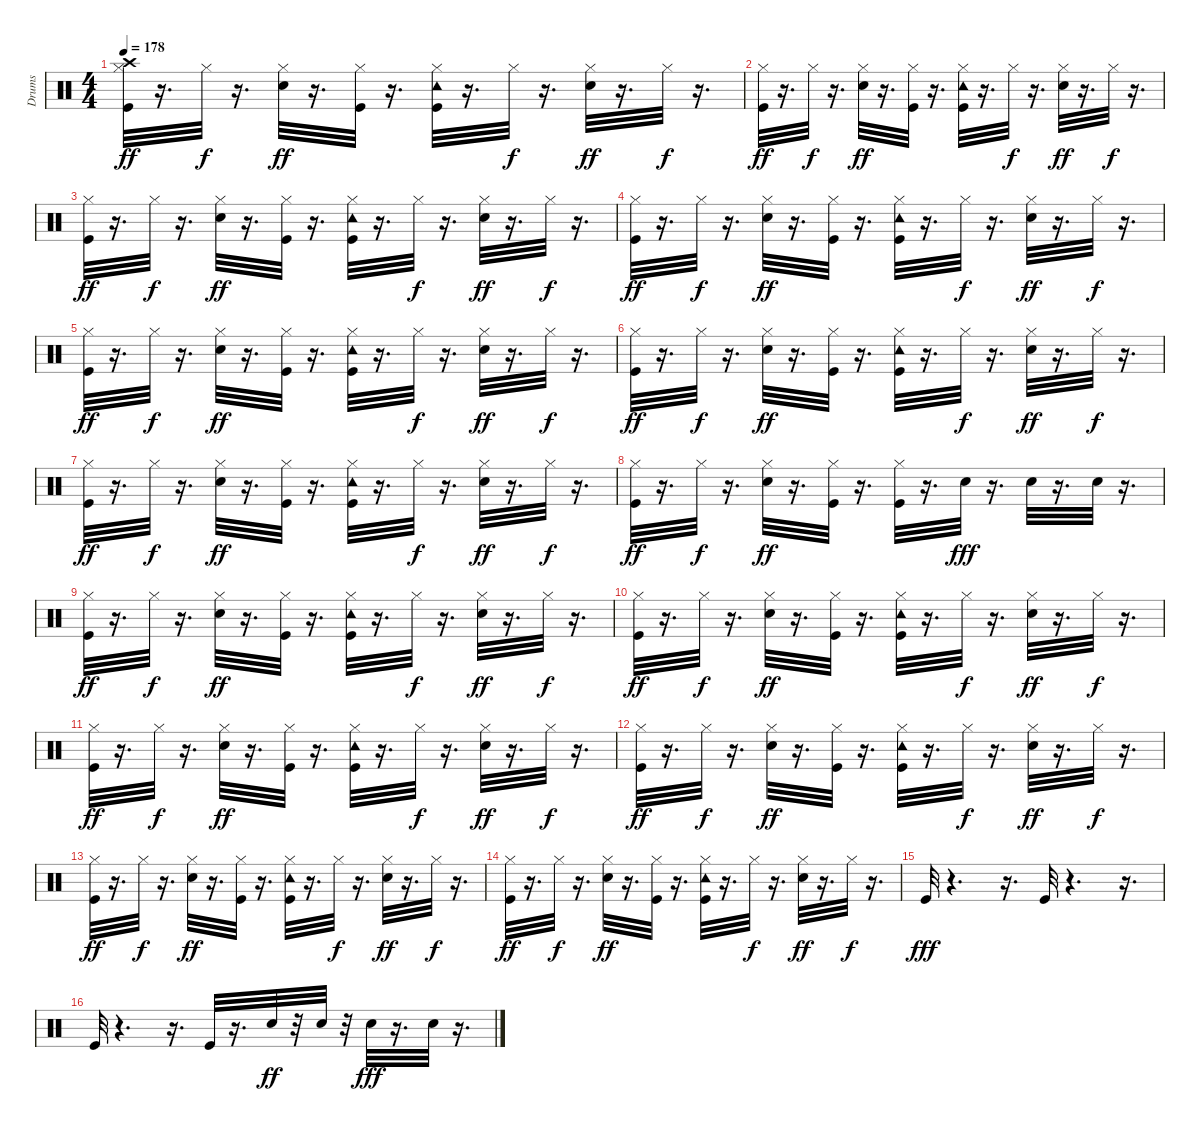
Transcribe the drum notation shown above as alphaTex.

\track ("Drums" "Drums") {instrument percussion}
\staff {score}
\articulation defaults
\ts (4 4)
\tempo 178
\clef neutral
\ks c
("Kick (hit)" "Crash high (hit)" "Hi-Hat (closed)").32{dy ff} r.16{d} "Hi-Hat (closed)".32{dy f} r.16{d} ("Snare (hit) 2" "Hi-Hat (closed)").32{dy ff} r.16{d} ("Hi-Hat (closed)" "Kick (hit)").32 r.16{d} ("Kick (hit)" "Tambourine (hit)" "Hi-Hat (closed)").32 r.16{d} "Hi-Hat (closed)".32{dy f} r.16{d} ("Snare (hit) 2" "Hi-Hat (closed)").32{dy ff} r.16{d} "Hi-Hat (closed)".32{dy f} r.16{d} |
("Kick (hit)" "Hi-Hat (closed)").32{dy ff} r.16{d} "Hi-Hat (closed)".32{dy f} r.16{d} ("Snare (hit) 2" "Hi-Hat (closed)").32{dy ff} r.16{d} ("Hi-Hat (closed)" "Kick (hit)").32 r.16{d} ("Kick (hit)" "Tambourine (hit)" "Hi-Hat (closed)").32 r.16{d} "Hi-Hat (closed)".32{dy f} r.16{d} ("Snare (hit) 2" "Hi-Hat (closed)").32{dy ff} r.16{d} "Hi-Hat (closed)".32{dy f} r.16{d} |
("Kick (hit)" "Hi-Hat (closed)").32{dy ff} r.16{d} "Hi-Hat (closed)".32{dy f} r.16{d} ("Snare (hit) 2" "Hi-Hat (closed)").32{dy ff} r.16{d} ("Hi-Hat (closed)" "Kick (hit)").32 r.16{d} ("Kick (hit)" "Tambourine (hit)" "Hi-Hat (closed)").32 r.16{d} "Hi-Hat (closed)".32{dy f} r.16{d} ("Snare (hit) 2" "Hi-Hat (closed)").32{dy ff} r.16{d} "Hi-Hat (closed)".32{dy f} r.16{d} |
("Kick (hit)" "Hi-Hat (closed)").32{dy ff} r.16{d} "Hi-Hat (closed)".32{dy f} r.16{d} ("Snare (hit) 2" "Hi-Hat (closed)").32{dy ff} r.16{d} ("Hi-Hat (closed)" "Kick (hit)").32 r.16{d} ("Kick (hit)" "Tambourine (hit)" "Hi-Hat (closed)").32 r.16{d} "Hi-Hat (closed)".32{dy f} r.16{d} ("Snare (hit) 2" "Hi-Hat (closed)").32{dy ff} r.16{d} "Hi-Hat (closed)".32{dy f} r.16{d} |
("Kick (hit)" "Hi-Hat (closed)").32{dy ff} r.16{d} "Hi-Hat (closed)".32{dy f} r.16{d} ("Snare (hit) 2" "Hi-Hat (closed)").32{dy ff} r.16{d} ("Hi-Hat (closed)" "Kick (hit)").32 r.16{d} ("Kick (hit)" "Tambourine (hit)" "Hi-Hat (closed)").32 r.16{d} "Hi-Hat (closed)".32{dy f} r.16{d} ("Snare (hit) 2" "Hi-Hat (closed)").32{dy ff} r.16{d} "Hi-Hat (closed)".32{dy f} r.16{d} |
("Kick (hit)" "Hi-Hat (closed)").32{dy ff} r.16{d} "Hi-Hat (closed)".32{dy f} r.16{d} ("Snare (hit) 2" "Hi-Hat (closed)").32{dy ff} r.16{d} ("Hi-Hat (closed)" "Kick (hit)").32 r.16{d} ("Kick (hit)" "Tambourine (hit)" "Hi-Hat (closed)").32 r.16{d} "Hi-Hat (closed)".32{dy f} r.16{d} ("Snare (hit) 2" "Hi-Hat (closed)").32{dy ff} r.16{d} "Hi-Hat (closed)".32{dy f} r.16{d} |
("Kick (hit)" "Hi-Hat (closed)").32{dy ff} r.16{d} "Hi-Hat (closed)".32{dy f} r.16{d} ("Snare (hit) 2" "Hi-Hat (closed)").32{dy ff} r.16{d} ("Hi-Hat (closed)" "Kick (hit)").32 r.16{d} ("Kick (hit)" "Tambourine (hit)" "Hi-Hat (closed)").32 r.16{d} "Hi-Hat (closed)".32{dy f} r.16{d} ("Snare (hit) 2" "Hi-Hat (closed)").32{dy ff} r.16{d} "Hi-Hat (closed)".32{dy f} r.16{d} |
("Kick (hit)" "Hi-Hat (closed)").32{dy ff} r.16{d} "Hi-Hat (closed)".32{dy f} r.16{d} ("Snare (hit) 2" "Hi-Hat (closed)").32{dy ff} r.16{d} ("Hi-Hat (closed)" "Kick (hit)").32 r.16{d} ("Kick (hit)" "Hi-Hat (closed)").32 r.16{d} "Snare (hit) 2".32{dy fff} r.16{d} "Snare (hit) 2".32 r.16{d} "Snare (hit) 2".32 r.16{d} |
("Kick (hit)" "Hi-Hat (closed)").32{dy ff} r.16{d} "Hi-Hat (closed)".32{dy f} r.16{d} ("Snare (hit) 2" "Hi-Hat (closed)").32{dy ff} r.16{d} ("Hi-Hat (closed)" "Kick (hit)").32 r.16{d} ("Kick (hit)" "Tambourine (hit)" "Hi-Hat (closed)").32 r.16{d} "Hi-Hat (closed)".32{dy f} r.16{d} ("Snare (hit) 2" "Hi-Hat (closed)").32{dy ff} r.16{d} "Hi-Hat (closed)".32{dy f} r.16{d} |
("Kick (hit)" "Hi-Hat (closed)").32{dy ff} r.16{d} "Hi-Hat (closed)".32{dy f} r.16{d} ("Snare (hit) 2" "Hi-Hat (closed)").32{dy ff} r.16{d} ("Hi-Hat (closed)" "Kick (hit)").32 r.16{d} ("Kick (hit)" "Tambourine (hit)" "Hi-Hat (closed)").32 r.16{d} "Hi-Hat (closed)".32{dy f} r.16{d} ("Snare (hit) 2" "Hi-Hat (closed)").32{dy ff} r.16{d} "Hi-Hat (closed)".32{dy f} r.16{d} |
("Kick (hit)" "Hi-Hat (closed)").32{dy ff} r.16{d} "Hi-Hat (closed)".32{dy f} r.16{d} ("Snare (hit) 2" "Hi-Hat (closed)").32{dy ff} r.16{d} ("Hi-Hat (closed)" "Kick (hit)").32 r.16{d} ("Kick (hit)" "Tambourine (hit)" "Hi-Hat (closed)").32 r.16{d} "Hi-Hat (closed)".32{dy f} r.16{d} ("Snare (hit) 2" "Hi-Hat (closed)").32{dy ff} r.16{d} "Hi-Hat (closed)".32{dy f} r.16{d} |
("Kick (hit)" "Hi-Hat (closed)").32{dy ff} r.16{d} "Hi-Hat (closed)".32{dy f} r.16{d} ("Snare (hit) 2" "Hi-Hat (closed)").32{dy ff} r.16{d} ("Hi-Hat (closed)" "Kick (hit)").32 r.16{d} ("Kick (hit)" "Tambourine (hit)" "Hi-Hat (closed)").32 r.16{d} "Hi-Hat (closed)".32{dy f} r.16{d} ("Snare (hit) 2" "Hi-Hat (closed)").32{dy ff} r.16{d} "Hi-Hat (closed)".32{dy f} r.16{d} |
("Kick (hit)" "Hi-Hat (closed)").32{dy ff} r.16{d} "Hi-Hat (closed)".32{dy f} r.16{d} ("Snare (hit) 2" "Hi-Hat (closed)").32{dy ff} r.16{d} ("Hi-Hat (closed)" "Kick (hit)").32 r.16{d} ("Kick (hit)" "Tambourine (hit)" "Hi-Hat (closed)").32 r.16{d} "Hi-Hat (closed)".32{dy f} r.16{d} ("Snare (hit) 2" "Hi-Hat (closed)").32{dy ff} r.16{d} "Hi-Hat (closed)".32{dy f} r.16{d} |
("Kick (hit)" "Hi-Hat (closed)").32{dy ff} r.16{d} "Hi-Hat (closed)".32{dy f} r.16{d} ("Snare (hit) 2" "Hi-Hat (closed)").32{dy ff} r.16{d} ("Hi-Hat (closed)" "Kick (hit)").32 r.16{d} ("Kick (hit)" "Tambourine (hit)" "Hi-Hat (closed)").32 r.16{d} "Hi-Hat (closed)".32{dy f} r.16{d} ("Snare (hit) 2" "Hi-Hat (closed)").32{dy ff} r.16{d} "Hi-Hat (closed)".32{dy f} r.16{d} |
"Kick (hit)".32{dy fff} r.4{d} r.16{d} "Kick (hit)".32 r.4{d} r.16{d} |
"Kick (hit)".32 r.4{d} r.16{d} "Kick (hit)".32 r.16{d} "Snare (hit) 2".32{dy ff} r.32 "Snare (hit) 2".32 r.32 "Snare (hit) 2".32{dy fff} r.16{d} "Snare (hit) 2".32 r.16{d}
